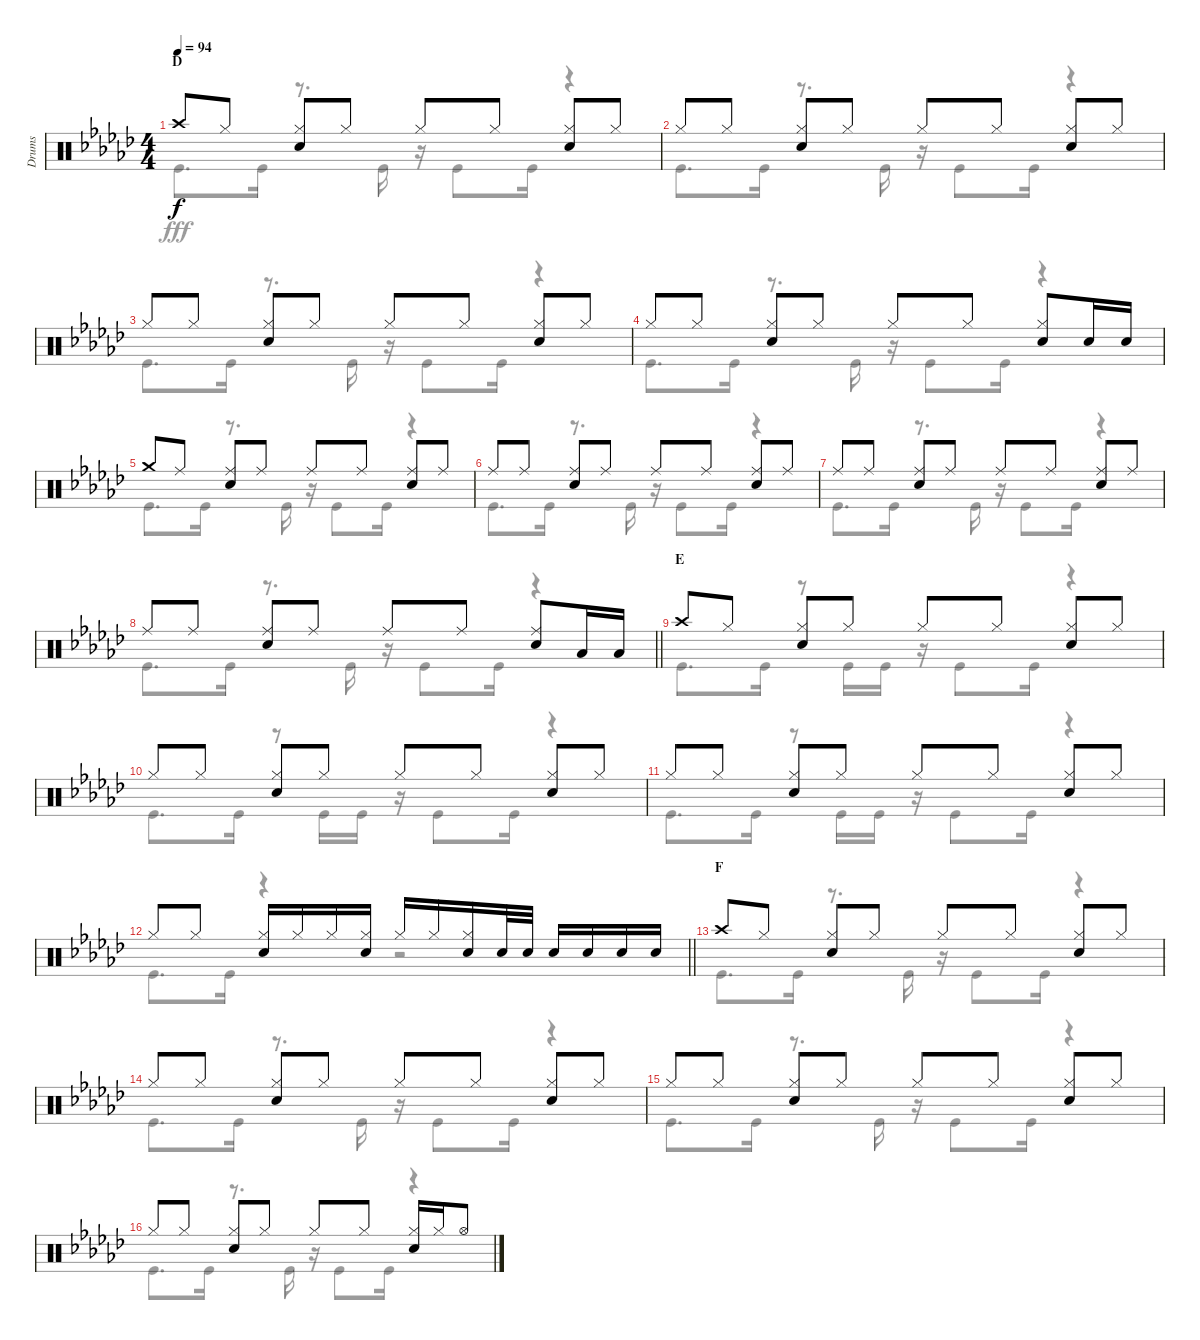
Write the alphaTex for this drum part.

\track ("Drums" "Drums") {instrument percussion}
\staff {score}
\articulation defaults
\voice
\ts (4 4)
\section ("" "D")
\tempo 94
\clef neutral
\ks gb "Crash high (hit)".8{dy f} "Hi-Hat (closed)".8
("Hi-Hat (closed)" "Electric Snare (hit)").8 "Hi-Hat (closed)".8 "Hi-Hat (closed)".8 "Hi-Hat (closed)".8 ("Hi-Hat (closed)" "Electric Snare (hit)").8 "Hi-Hat (closed)".8 |
"Hi-Hat (closed)".8 "Hi-Hat (closed)".8 ("Hi-Hat (closed)" "Electric Snare (hit)").8 "Hi-Hat (closed)".8 "Hi-Hat (closed)".8 "Hi-Hat (closed)".8 ("Hi-Hat (closed)" "Electric Snare (hit)").8 "Hi-Hat (closed)".8 |
"Hi-Hat (closed)".8 "Hi-Hat (closed)".8 ("Hi-Hat (closed)" "Electric Snare (hit)").8 "Hi-Hat (closed)".8 "Hi-Hat (closed)".8 "Hi-Hat (closed)".8 ("Hi-Hat (closed)" "Electric Snare (hit)").8 "Hi-Hat (closed)".8 |
"Hi-Hat (closed)".8 "Hi-Hat (closed)".8 ("Hi-Hat (closed)" "Electric Snare (hit)").8 "Hi-Hat (closed)".8 "Hi-Hat (closed)".8 "Hi-Hat (closed)".8 ("Hi-Hat (closed)" "Electric Snare (hit)").8 "Electric Snare (hit)".16 "Electric Snare (hit)".16 |
"Crash medium (hit)".8 "Ride (middle)".8 ("Ride (middle)" "Electric Snare (hit)").8 "Ride (middle)".8 "Ride (middle)".8 "Ride (middle)".8 ("Ride (middle)" "Electric Snare (hit)").8 "Ride (middle)".8 |
"Ride (middle)".8 "Ride (middle)".8 ("Ride (middle)" "Electric Snare (hit)").8 "Ride (middle)".8 "Ride (middle)".8 "Ride (middle)".8 ("Ride (middle)" "Electric Snare (hit)").8 "Ride (middle)".8 |
"Ride (middle)".8 "Ride (middle)".8 ("Ride (middle)" "Electric Snare (hit)").8 "Ride (middle)".8 "Ride (middle)".8 "Ride (middle)".8 ("Ride (middle)" "Electric Snare (hit)").8 "Ride (middle)".8 |
\barLineRight lightlight "Ride (middle)".8 "Ride (middle)".8
("Ride (middle)" "Electric Snare (hit)").8 "Ride (middle)".8 "Ride (middle)".8 "Ride (middle)".8 ("Ride (middle)" "Electric Snare (hit)").8 "Low Tom (hit)".16 "Low Tom (hit)".16 |
\section ("" "E")
"Crash high (hit)".8 "Hi-Hat (closed)".8 ("Hi-Hat (closed)" "Electric Snare (hit)").8 "Hi-Hat (closed)".8 "Hi-Hat (closed)".8 "Hi-Hat (closed)".8 ("Hi-Hat (closed)" "Electric Snare (hit)").8 "Hi-Hat (closed)".8 |
"Hi-Hat (closed)".8 "Hi-Hat (closed)".8 ("Hi-Hat (closed)" "Electric Snare (hit)").8 "Hi-Hat (closed)".8 "Hi-Hat (closed)".8 "Hi-Hat (closed)".8 ("Hi-Hat (closed)" "Electric Snare (hit)").8 "Hi-Hat (closed)".8 |
"Hi-Hat (closed)".8 "Hi-Hat (closed)".8 ("Hi-Hat (closed)" "Electric Snare (hit)").8 "Hi-Hat (closed)".8 "Hi-Hat (closed)".8 "Hi-Hat (closed)".8 ("Hi-Hat (closed)" "Electric Snare (hit)").8 "Hi-Hat (closed)".8 |
\barLineRight lightlight "Hi-Hat (closed)".8 "Hi-Hat (closed)".8
("Hi-Hat (closed)" "Electric Snare (hit)").16 "Hi-Hat (closed)".16 "Hi-Hat (closed)".16 ("Hi-Hat (closed)" "Electric Snare (hit)").16 "Hi-Hat (closed)".16 "Hi-Hat (closed)".16 ("Hi-Hat (closed)" "Electric Snare (hit)").16 "Electric Snare (hit)".32 "Electric Snare (hit)".32 "Electric Snare (hit)".16 "Electric Snare (hit)".16 "Electric Snare (hit)".16 "Electric Snare (hit)".16 |
\section ("" "F")
"Crash high (hit)".8 "Hi-Hat (closed)".8 ("Hi-Hat (closed)" "Electric Snare (hit)").8 "Hi-Hat (closed)".8 "Hi-Hat (closed)".8 "Hi-Hat (closed)".8 ("Hi-Hat (closed)" "Electric Snare (hit)").8 "Hi-Hat (closed)".8 |
"Hi-Hat (closed)".8 "Hi-Hat (closed)".8 ("Hi-Hat (closed)" "Electric Snare (hit)").8 "Hi-Hat (closed)".8 "Hi-Hat (closed)".8 "Hi-Hat (closed)".8 ("Hi-Hat (closed)" "Electric Snare (hit)").8 "Hi-Hat (closed)".8 |
"Hi-Hat (closed)".8 "Hi-Hat (closed)".8 ("Hi-Hat (closed)" "Electric Snare (hit)").8 "Hi-Hat (closed)".8 "Hi-Hat (closed)".8 "Hi-Hat (closed)".8 ("Hi-Hat (closed)" "Electric Snare (hit)").8 "Hi-Hat (closed)".8 |
"Hi-Hat (closed)".8 "Hi-Hat (closed)".8 ("Hi-Hat (closed)" "Electric Snare (hit)").8 "Hi-Hat (closed)".8 "Hi-Hat (closed)".8 "Hi-Hat (closed)".8 ("Hi-Hat (closed)" "Electric Snare (hit)").16 "Hi-Hat (closed)".16 "Hi-Hat (open)".8
\voice
\clef neutral
\ottava regular
\simile none
\ks gb "Kick (hit)".8{d dy fff} "Kick (hit)".16
r.8{d} "Kick (hit)".16 r.16 "Kick (hit)".8 "Kick (hit)".16 r.4 |
"Kick (hit)".8{d} "Kick (hit)".16 r.8{d} "Kick (hit)".16 r.16 "Kick (hit)".8 "Kick (hit)".16 r.4 |
"Kick (hit)".8{d} "Kick (hit)".16 r.8{d} "Kick (hit)".16 r.16 "Kick (hit)".8 "Kick (hit)".16 r.4 |
"Kick (hit)".8{d} "Kick (hit)".16 r.8{d} "Kick (hit)".16 r.16 "Kick (hit)".8 "Kick (hit)".16 r.4 |
"Kick (hit)".8{d} "Kick (hit)".16 r.8{d} "Kick (hit)".16 r.16 "Kick (hit)".8 "Kick (hit)".16 r.4 |
"Kick (hit)".8{d} "Kick (hit)".16 r.8{d} "Kick (hit)".16 r.16 "Kick (hit)".8 "Kick (hit)".16 r.4 |
"Kick (hit)".8{d} "Kick (hit)".16 r.8{d} "Kick (hit)".16 r.16 "Kick (hit)".8 "Kick (hit)".16 r.4 |
\barLineRight lightlight "Kick (hit)".8{d} "Kick (hit)".16
r.8{d} "Kick (hit)".16 r.16 "Kick (hit)".8 "Kick (hit)".16 r.4 |
"Kick (hit)".8{d} "Kick (hit)".16 r.8 "Kick (hit)".16 "Kick (hit)".16 r.16 "Kick (hit)".8 "Kick (hit)".16 r.4 |
"Kick (hit)".8{d} "Kick (hit)".16 r.8 "Kick (hit)".16 "Kick (hit)".16 r.16 "Kick (hit)".8 "Kick (hit)".16 r.4 |
"Kick (hit)".8{d} "Kick (hit)".16 r.8 "Kick (hit)".16 "Kick (hit)".16 r.16 "Kick (hit)".8 "Kick (hit)".16 r.4 |
\barLineRight lightlight "Kick (hit)".8{d} "Kick (hit)".16
r.4 r.2 |
"Kick (hit)".8{d} "Kick (hit)".16 r.8{d} "Kick (hit)".16 r.16 "Kick (hit)".8 "Kick (hit)".16 r.4 |
"Kick (hit)".8{d} "Kick (hit)".16 r.8{d} "Kick (hit)".16 r.16 "Kick (hit)".8 "Kick (hit)".16 r.4 |
"Kick (hit)".8{d} "Kick (hit)".16 r.8{d} "Kick (hit)".16 r.16 "Kick (hit)".8 "Kick (hit)".16 r.4 |
"Kick (hit)".8{d} "Kick (hit)".16 r.8{d} "Kick (hit)".16 r.16 "Kick (hit)".8 "Kick (hit)".16 r.4
